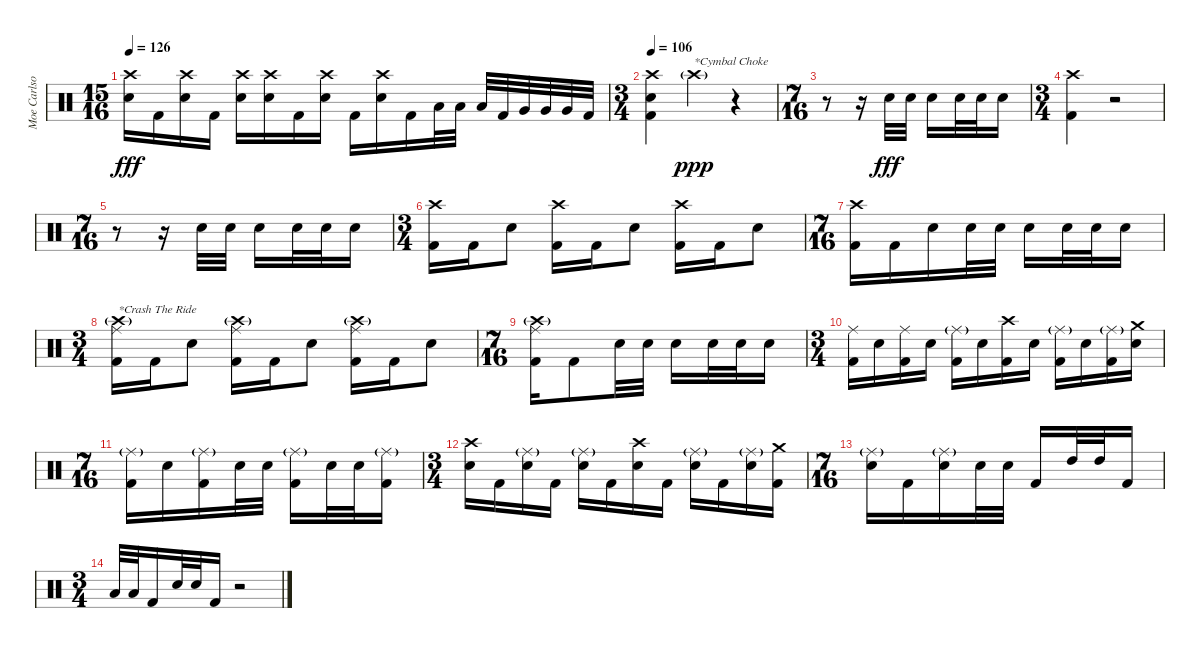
\track ("Moe Carlson" "Moe Carlso") {instrument percussion}
\staff {score}
\articulation defaults
\ts (15 16)
\tempo 126
\clef neutral
\ks c
("Crash high (hit)" "Electric Snare (hit)").16{dy fff} "Kick (hit) 2".16 ("Crash high (hit)" "Electric Snare (hit)").16 "Kick (hit) 2".16 ("Crash high (hit)" "Electric Snare (hit)").16 ("Crash high (hit)" "Electric Snare (hit)").16 "Kick (hit) 2".16 ("Crash high (hit)" "Electric Snare (hit)").16 "Kick (hit) 2".16 ("Crash high (hit)" "Electric Snare (hit)").16 "Kick (hit) 2".16 "Low Tom (hit)".32 "Low Tom (hit)".32 "Low Tom (hit)".32 "Kick (hit) 2".32 "Very Low Tom (hit)".32 "Very Low Tom (hit)".32 "Very Low Tom (hit)".32 "Kick (hit) 2".32 |
\ts (3 4)
\tempo 106
("Crash high (hit)" "Electric Snare (hit)" "Kick (hit) 2").4 "Crash high (hit)"{g}.4{txt "*Cymbal Choke" dy ppp} r.4 |
\ts (7 16)
r.8 r.16 "Electric Snare (hit)".32{dy fff} "Electric Snare (hit)".32 "Electric Snare (hit)".16 "Electric Snare (hit)".32 "Electric Snare (hit)".32 "Electric Snare (hit)".16 |
\ts (3 4)
("Crash high (hit)" "Kick (hit) 2").4 r.2 |
\ts (7 16)
r.8 r.16 "Electric Snare (hit)".32 "Electric Snare (hit)".32 "Electric Snare (hit)".16 "Electric Snare (hit)".32 "Electric Snare (hit)".32 "Electric Snare (hit)".16 |
\ts (3 4)
("Crash high (hit)" "Kick (hit) 2").16 "Kick (hit) 2".16 "Electric Snare (hit)".8 ("Crash high (hit)" "Kick (hit) 2").16 "Kick (hit) 2".16 "Electric Snare (hit)".8 ("Crash high (hit)" "Kick (hit) 2").16 "Kick (hit) 2".16 "Electric Snare (hit)".8 |
\ts (7 16)
("Crash high (hit)" "Kick (hit) 2").16 "Kick (hit) 2".16 "Electric Snare (hit)".16 "Electric Snare (hit)".32 "Electric Snare (hit)".32 "Electric Snare (hit)".16 "Electric Snare (hit)".32 "Electric Snare (hit)".32 "Electric Snare (hit)".16 |
\ts (3 4)
("Crash high (hit)"{g} "Ride (middle)" "Kick (hit) 2").16{txt "*Crash The Ride"} "Kick (hit) 2".16 "Electric Snare (hit)".8 ("Crash high (hit)"{g} "Ride (middle)" "Kick (hit) 2").16 "Kick (hit) 2".16 "Electric Snare (hit)".8 ("Crash high (hit)"{g} "Ride (middle)" "Kick (hit) 2").16 "Kick (hit) 2".16 "Electric Snare (hit)".8 |
\ts (7 16)
("Crash high (hit)"{g} "Ride (middle)" "Kick (hit) 2").16 "Kick (hit) 2".8 "Electric Snare (hit)".32 "Electric Snare (hit)".32 "Electric Snare (hit)".16 "Electric Snare (hit)".32 "Electric Snare (hit)".32 "Electric Snare (hit)".16 |
\ts (3 4)
("Ride (middle)" "Kick (hit) 2").16 "Electric Snare (hit)".16 ("Ride (middle)" "Kick (hit) 2").16 "Electric Snare (hit)".16 ("Ride (middle)"{g} "Kick (hit) 2").16 "Electric Snare (hit)".16 ("Crash high (hit)" "Kick (hit) 2").16 "Electric Snare (hit)".16 ("Ride (middle)"{g} "Kick (hit) 2").16 "Electric Snare (hit)".16 ("Ride (middle)"{g} "Kick (hit) 2").16 ("Crash medium (hit)" "Electric Snare (hit)").16 |
\ts (7 16)
("Ride (middle)"{g} "Kick (hit) 2").16 "Electric Snare (hit)".16 ("Ride (middle)"{g} "Kick (hit) 2").16 "Electric Snare (hit)".32 "Electric Snare (hit)".32 ("Ride (middle)"{g} "Kick (hit) 2").16 "Electric Snare (hit)".32 "Electric Snare (hit)".32 ("Ride (middle)"{g} "Kick (hit) 2").16 |
\ts (3 4)
("Crash high (hit)" "Electric Snare (hit)").16 "Kick (hit) 2".16 ("Ride (middle)"{g} "Electric Snare (hit)").16 "Kick (hit) 2".16 ("Ride (middle)"{g} "Electric Snare (hit)").16 "Kick (hit) 2".16 ("Crash high (hit)" "Electric Snare (hit)").16 "Kick (hit) 2".16 ("Ride (middle)"{g} "Electric Snare (hit)").16 "Kick (hit) 2".16 ("Ride (middle)"{g} "Electric Snare (hit)").16 ("Crash medium (hit)" "Kick (hit) 2").16 |
\ts (7 16)
("Ride (middle)"{g} "Electric Snare (hit)").16 "Kick (hit) 2".16 ("Ride (middle)"{g} "Electric Snare (hit)").16 "Electric Snare (hit)".32 "Electric Snare (hit)".32 "Kick (hit) 2".16 "High Tom (hit)".32 "High Tom (hit)".32 "Kick (hit) 2".16 |
\ts (3 4)
"Low Tom (hit)".32 "Low Tom (hit)".32 "Kick (hit) 2".16 "Electric Snare (hit)".32 "Electric Snare (hit)".32 "Kick (hit) 2".16 r.2
